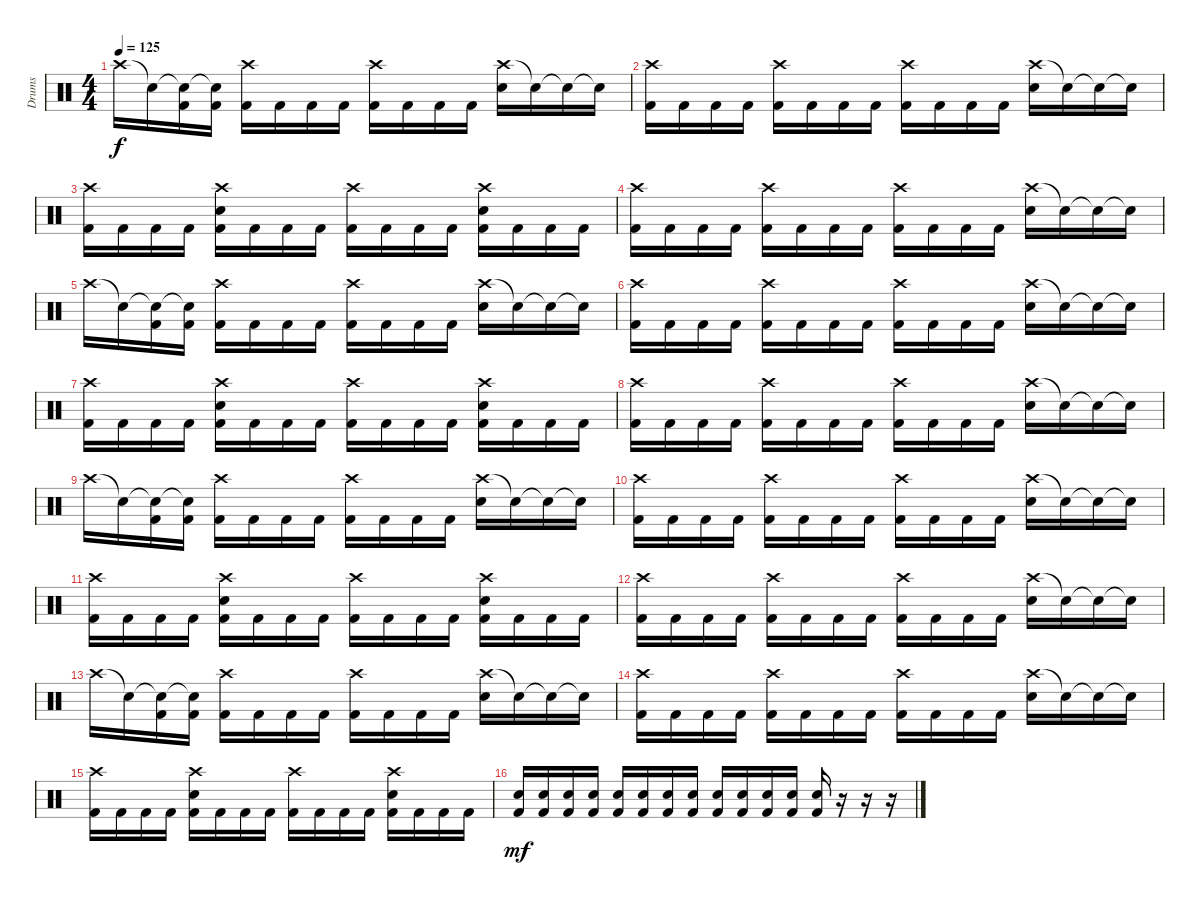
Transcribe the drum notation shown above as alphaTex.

\track ("Drums" "Drums") {instrument percussion}
\staff {score}
\articulation defaults
\ts (4 4)
\tempo 125
\clef neutral
\ks c "Crash high (hit)".16{dy f} "Snare (hit)"{t}.16
("Snare (hit)"{t} "Kick (hit) 2").16 ("Snare (hit)"{t} "Kick (hit) 2").16 ("Crash high (hit)" "Kick (hit) 2").16 "Kick (hit) 2".16 "Kick (hit) 2".16 "Kick (hit) 2".16 ("Crash high (hit)" "Kick (hit) 2").16 "Kick (hit) 2".16 "Kick (hit) 2".16 "Kick (hit) 2".16 ("Crash high (hit)" "Electric Snare (hit)").16 "Snare (hit)"{t}.16 "Snare (hit)"{t}.16 "Snare (hit)"{t}.16 |
("Crash high (hit)" "Kick (hit) 2").16 "Kick (hit) 2".16 "Kick (hit) 2".16 "Kick (hit) 2".16 ("Crash high (hit)" "Kick (hit) 2").16 "Kick (hit) 2".16 "Kick (hit) 2".16 "Kick (hit) 2".16 ("Crash high (hit)" "Kick (hit) 2").16 "Kick (hit) 2".16 "Kick (hit) 2".16 "Kick (hit) 2".16 ("Crash high (hit)" "Electric Snare (hit)").16 "Snare (hit)"{t}.16 "Snare (hit)"{t}.16 "Snare (hit)"{t}.16 |
("Crash high (hit)" "Kick (hit) 2").16 "Kick (hit) 2".16 "Kick (hit) 2".16 "Kick (hit) 2".16 ("Crash high (hit)" "Electric Snare (hit)" "Kick (hit) 2").16 "Kick (hit) 2".16 "Kick (hit) 2".16 "Kick (hit) 2".16 ("Crash high (hit)" "Kick (hit) 2").16 "Kick (hit) 2".16 "Kick (hit) 2".16 "Kick (hit) 2".16 ("Crash high (hit)" "Electric Snare (hit)" "Kick (hit) 2").16 "Kick (hit) 2".16 "Kick (hit) 2".16 "Kick (hit) 2".16 |
("Crash high (hit)" "Kick (hit) 2").16 "Kick (hit) 2".16 "Kick (hit) 2".16 "Kick (hit) 2".16 ("Crash high (hit)" "Kick (hit) 2").16 "Kick (hit) 2".16 "Kick (hit) 2".16 "Kick (hit) 2".16 ("Crash high (hit)" "Kick (hit) 2").16 "Kick (hit) 2".16 "Kick (hit) 2".16 "Kick (hit) 2".16 ("Crash high (hit)" "Electric Snare (hit)").16 "Snare (hit)"{t}.16 "Snare (hit)"{t}.16 "Snare (hit)"{t}.16 |
"Crash high (hit)".16 "Snare (hit)"{t}.16 ("Snare (hit)"{t} "Kick (hit) 2").16 ("Snare (hit)"{t} "Kick (hit) 2").16 ("Crash high (hit)" "Kick (hit) 2").16 "Kick (hit) 2".16 "Kick (hit) 2".16 "Kick (hit) 2".16 ("Crash high (hit)" "Kick (hit) 2").16 "Kick (hit) 2".16 "Kick (hit) 2".16 "Kick (hit) 2".16 ("Crash high (hit)" "Electric Snare (hit)").16 "Snare (hit)"{t}.16 "Snare (hit)"{t}.16 "Snare (hit)"{t}.16 |
("Crash high (hit)" "Kick (hit) 2").16 "Kick (hit) 2".16 "Kick (hit) 2".16 "Kick (hit) 2".16 ("Crash high (hit)" "Kick (hit) 2").16 "Kick (hit) 2".16 "Kick (hit) 2".16 "Kick (hit) 2".16 ("Crash high (hit)" "Kick (hit) 2").16 "Kick (hit) 2".16 "Kick (hit) 2".16 "Kick (hit) 2".16 ("Crash high (hit)" "Electric Snare (hit)").16 "Snare (hit)"{t}.16 "Snare (hit)"{t}.16 "Snare (hit)"{t}.16 |
("Crash high (hit)" "Kick (hit) 2").16 "Kick (hit) 2".16 "Kick (hit) 2".16 "Kick (hit) 2".16 ("Crash high (hit)" "Electric Snare (hit)" "Kick (hit) 2").16 "Kick (hit) 2".16 "Kick (hit) 2".16 "Kick (hit) 2".16 ("Crash high (hit)" "Kick (hit) 2").16 "Kick (hit) 2".16 "Kick (hit) 2".16 "Kick (hit) 2".16 ("Crash high (hit)" "Electric Snare (hit)" "Kick (hit) 2").16 "Kick (hit) 2".16 "Kick (hit) 2".16 "Kick (hit) 2".16 |
("Crash high (hit)" "Kick (hit) 2").16 "Kick (hit) 2".16 "Kick (hit) 2".16 "Kick (hit) 2".16 ("Crash high (hit)" "Kick (hit) 2").16 "Kick (hit) 2".16 "Kick (hit) 2".16 "Kick (hit) 2".16 ("Crash high (hit)" "Kick (hit) 2").16 "Kick (hit) 2".16 "Kick (hit) 2".16 "Kick (hit) 2".16 ("Crash high (hit)" "Electric Snare (hit)").16 "Snare (hit)"{t}.16 "Snare (hit)"{t}.16 "Snare (hit)"{t}.16 |
"Crash high (hit)".16 "Snare (hit)"{t}.16 ("Snare (hit)"{t} "Kick (hit) 2").16 ("Snare (hit)"{t} "Kick (hit) 2").16 ("Crash high (hit)" "Kick (hit) 2").16 "Kick (hit) 2".16 "Kick (hit) 2".16 "Kick (hit) 2".16 ("Crash high (hit)" "Kick (hit) 2").16 "Kick (hit) 2".16 "Kick (hit) 2".16 "Kick (hit) 2".16 ("Crash high (hit)" "Electric Snare (hit)").16 "Snare (hit)"{t}.16 "Snare (hit)"{t}.16 "Snare (hit)"{t}.16 |
("Crash high (hit)" "Kick (hit) 2").16 "Kick (hit) 2".16 "Kick (hit) 2".16 "Kick (hit) 2".16 ("Crash high (hit)" "Kick (hit) 2").16 "Kick (hit) 2".16 "Kick (hit) 2".16 "Kick (hit) 2".16 ("Crash high (hit)" "Kick (hit) 2").16 "Kick (hit) 2".16 "Kick (hit) 2".16 "Kick (hit) 2".16 ("Crash high (hit)" "Electric Snare (hit)").16 "Snare (hit)"{t}.16 "Snare (hit)"{t}.16 "Snare (hit)"{t}.16 |
("Crash high (hit)" "Kick (hit) 2").16 "Kick (hit) 2".16 "Kick (hit) 2".16 "Kick (hit) 2".16 ("Crash high (hit)" "Electric Snare (hit)" "Kick (hit) 2").16 "Kick (hit) 2".16 "Kick (hit) 2".16 "Kick (hit) 2".16 ("Crash high (hit)" "Kick (hit) 2").16 "Kick (hit) 2".16 "Kick (hit) 2".16 "Kick (hit) 2".16 ("Crash high (hit)" "Electric Snare (hit)" "Kick (hit) 2").16 "Kick (hit) 2".16 "Kick (hit) 2".16 "Kick (hit) 2".16 |
("Crash high (hit)" "Kick (hit) 2").16 "Kick (hit) 2".16 "Kick (hit) 2".16 "Kick (hit) 2".16 ("Crash high (hit)" "Kick (hit) 2").16 "Kick (hit) 2".16 "Kick (hit) 2".16 "Kick (hit) 2".16 ("Crash high (hit)" "Kick (hit) 2").16 "Kick (hit) 2".16 "Kick (hit) 2".16 "Kick (hit) 2".16 ("Crash high (hit)" "Electric Snare (hit)").16 "Snare (hit)"{t}.16 "Snare (hit)"{t}.16 "Snare (hit)"{t}.16 |
"Crash high (hit)".16 "Snare (hit)"{t}.16 ("Snare (hit)"{t} "Kick (hit) 2").16 ("Snare (hit)"{t} "Kick (hit) 2").16 ("Crash high (hit)" "Kick (hit) 2").16 "Kick (hit) 2".16 "Kick (hit) 2".16 "Kick (hit) 2".16 ("Crash high (hit)" "Kick (hit) 2").16 "Kick (hit) 2".16 "Kick (hit) 2".16 "Kick (hit) 2".16 ("Crash high (hit)" "Electric Snare (hit)").16 "Snare (hit)"{t}.16 "Snare (hit)"{t}.16 "Snare (hit)"{t}.16 |
("Crash high (hit)" "Kick (hit) 2").16 "Kick (hit) 2".16 "Kick (hit) 2".16 "Kick (hit) 2".16 ("Crash high (hit)" "Kick (hit) 2").16 "Kick (hit) 2".16 "Kick (hit) 2".16 "Kick (hit) 2".16 ("Crash high (hit)" "Kick (hit) 2").16 "Kick (hit) 2".16 "Kick (hit) 2".16 "Kick (hit) 2".16 ("Crash high (hit)" "Electric Snare (hit)").16 "Snare (hit)"{t}.16 "Snare (hit)"{t}.16 "Snare (hit)"{t}.16 |
("Crash high (hit)" "Kick (hit) 2").16 "Kick (hit) 2".16 "Kick (hit) 2".16 "Kick (hit) 2".16 ("Crash high (hit)" "Electric Snare (hit)" "Kick (hit) 2").16 "Kick (hit) 2".16 "Kick (hit) 2".16 "Kick (hit) 2".16 ("Crash high (hit)" "Kick (hit) 2").16 "Kick (hit) 2".16 "Kick (hit) 2".16 "Kick (hit) 2".16 ("Crash high (hit)" "Electric Snare (hit)" "Kick (hit) 2").16 "Kick (hit) 2".16 "Kick (hit) 2".16 "Kick (hit) 2".16 |
("Electric Snare (hit)" "Kick (hit) 2").16{dy mf} ("Electric Snare (hit)" "Kick (hit) 2").16 ("Electric Snare (hit)" "Kick (hit) 2").16 ("Electric Snare (hit)" "Kick (hit) 2").16 ("Electric Snare (hit)" "Kick (hit) 2").16 ("Electric Snare (hit)" "Kick (hit) 2").16 ("Electric Snare (hit)" "Kick (hit) 2").16 ("Electric Snare (hit)" "Kick (hit) 2").16 ("Electric Snare (hit)" "Kick (hit) 2").16 ("Electric Snare (hit)" "Kick (hit) 2").16 ("Electric Snare (hit)" "Kick (hit) 2").16 ("Electric Snare (hit)" "Kick (hit) 2").16 ("Electric Snare (hit)" "Kick (hit) 2").16 r.16 r.16 r.16
